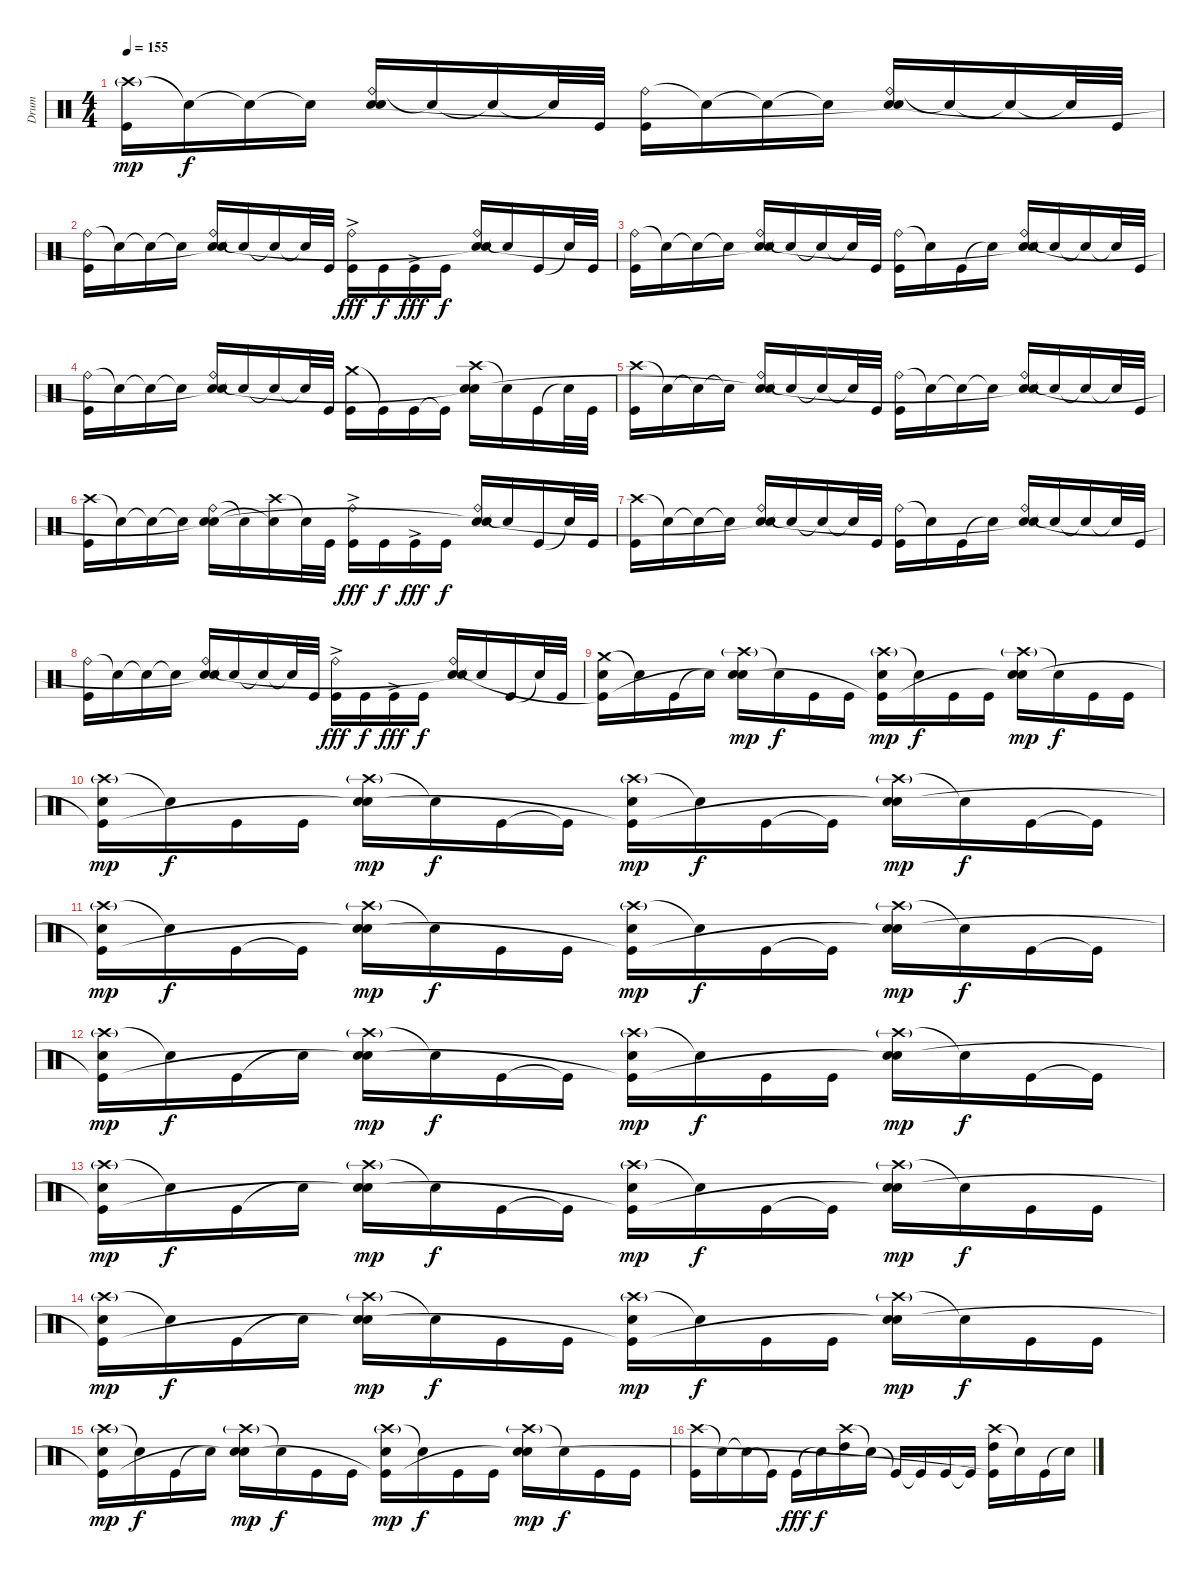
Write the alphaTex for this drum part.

\track ("Drum" "Drum") {instrument percussion}
\staff {score}
\articulation defaults
\ts (4 4)
\tempo 155
\clef neutral
\ks c
("Crash high (hit)"{g} "Kick (hit)").16{dy mp} "Snare (hit)"{t}.16{dy f} "Snare (hit)"{t}.16 "Snare (hit)"{t}.16 ("Ride (bell)" "Electric Snare (hit)" "Snare (hit)"{t}).16 "Snare (hit)"{t}.16 "Snare (hit)"{t}.16 "Snare (hit)"{t}.32 "Kick (hit)".32 ("Ride (bell)" "Kick (hit)").16 "Snare (hit)"{t}.16 "Snare (hit)"{t}.16 "Snare (hit)"{t}.16 ("Ride (bell)" "Electric Snare (hit)" "Snare (hit)"{t}).16 "Snare (hit)"{t}.16 "Snare (hit)"{t}.16 "Snare (hit)"{t}.32 "Kick (hit)".32 |
("Ride (bell)" "Kick (hit)").16 "Snare (hit)"{t}.16 "Snare (hit)"{t}.16 "Snare (hit)"{t}.16 ("Ride (bell)" "Electric Snare (hit)" "Snare (hit)"{t}).16 "Snare (hit)"{t}.16 "Snare (hit)"{t}.16 "Snare (hit)"{t}.32 "Kick (hit)".32 ("Ride (bell)" "Kick (hit)"{ac}).16{dy fff} "Kick (hit)".16{dy f} "Kick (hit)"{ac}.16{dy fff} "Kick (hit)".16{dy f} ("Ride (bell)" "Electric Snare (hit)" "Snare (hit)"{t}).16 "Snare (hit)"{t}.16 "Kick (hit)".16 "Snare (hit)"{t}.32 "Kick (hit)".32 |
("Ride (bell)" "Kick (hit)").16 "Snare (hit)"{t}.16 "Snare (hit)"{t}.16 "Snare (hit)"{t}.16 ("Ride (bell)" "Electric Snare (hit)" "Snare (hit)"{t}).16 "Snare (hit)"{t}.16 "Snare (hit)"{t}.16 "Snare (hit)"{t}.32 "Kick (hit)".32 ("Ride (bell)" "Kick (hit)").16 "Snare (hit)"{t}.16 "Kick (hit)".16 "Snare (hit)"{t}.16 ("Ride (bell)" "Electric Snare (hit)" "Snare (hit)"{t}).16 "Snare (hit)"{t}.16 "Snare (hit)"{t}.16 "Snare (hit)"{t}.32 "Kick (hit)".32 |
("Ride (bell)" "Kick (hit)").16 "Snare (hit)"{t}.16 "Snare (hit)"{t}.16 "Snare (hit)"{t}.16 ("Ride (bell)" "Electric Snare (hit)" "Snare (hit)"{t}).16 "Snare (hit)"{t}.16 "Snare (hit)"{t}.16 "Snare (hit)"{t}.32 "Kick (hit)".32 ("Crash medium (hit)" "Kick (hit)").16 "Kick (hit)"{t}.16 "Kick (hit)".16 "Kick (hit)"{t}.16 ("Crash high (hit)" "Electric Snare (hit)" "Snare (hit)"{t}).16 "Snare (hit)"{t}.16 "Kick (hit)".16 "Snare (hit)"{t}.32 "Kick (hit)".32 |
("Crash high (hit)" "Kick (hit)").16 "Snare (hit)"{t}.16 "Snare (hit)"{t}.16 "Snare (hit)"{t}.16 ("Ride (bell)" "Electric Snare (hit)" "Snare (hit)"{t}).16 "Snare (hit)"{t}.16 "Snare (hit)"{t}.16 "Snare (hit)"{t}.32 "Kick (hit)".32 ("Ride (bell)" "Kick (hit)").16 "Snare (hit)"{t}.16 "Snare (hit)"{t}.16 "Snare (hit)"{t}.16 ("Ride (bell)" "Electric Snare (hit)" "Snare (hit)"{t}).16 "Snare (hit)"{t}.16 "Snare (hit)"{t}.16 "Snare (hit)"{t}.32 "Kick (hit)".32 |
("Crash high (hit)" "Kick (hit)").16 "Snare (hit)"{t}.16 "Snare (hit)"{t}.16 "Snare (hit)"{t}.16 ("Ride (bell)" "Electric Snare (hit)" "Snare (hit)"{t}).16 "Snare (hit)"{t}.16 ("Crash high (hit)" "Snare (hit)"{t}).16 "Snare (hit)"{t}.32 "Kick (hit)".32 ("Ride (bell)" "Kick (hit)"{ac}).16{dy fff} "Kick (hit)".16{dy f} "Kick (hit)"{ac}.16{dy fff} "Kick (hit)".16{dy f} ("Ride (bell)" "Electric Snare (hit)" "Snare (hit)"{t}).16 "Snare (hit)"{t}.16 "Kick (hit)".16 "Snare (hit)"{t}.32 "Kick (hit)".32 |
("Crash high (hit)" "Kick (hit)").16 "Snare (hit)"{t}.16 "Snare (hit)"{t}.16 "Snare (hit)"{t}.16 ("Ride (bell)" "Electric Snare (hit)" "Snare (hit)"{t}).16 "Snare (hit)"{t}.16 "Snare (hit)"{t}.16 "Snare (hit)"{t}.32 "Kick (hit)".32 ("Ride (bell)" "Kick (hit)").16 "Snare (hit)"{t}.16 "Kick (hit)".16 "Snare (hit)"{t}.16 ("Ride (bell)" "Electric Snare (hit)" "Snare (hit)"{t}).16 "Snare (hit)"{t}.16 "Snare (hit)"{t}.16 "Snare (hit)"{t}.32 "Kick (hit)".32 |
("Ride (bell)" "Kick (hit)").16 "Snare (hit)"{t}.16 "Snare (hit)"{t}.16 "Snare (hit)"{t}.16 ("Ride (bell)" "Electric Snare (hit)" "Snare (hit)"{t}).16 "Snare (hit)"{t}.16 "Snare (hit)"{t}.16 "Snare (hit)"{t}.32 "Kick (hit)".32 ("Ride (bell)" "Kick (hit)"{ac}).16{dy fff} "Kick (hit)".16{dy f} "Kick (hit)"{ac}.16{dy fff} "Kick (hit)".16{dy f} ("Ride (bell)" "Electric Snare (hit)" "Snare (hit)"{t}).16 "Snare (hit)"{t}.16 "Kick (hit)".16 "Snare (hit)"{t}.32 "Kick (hit)".32 |
("Crash medium (hit)" "Electric Snare (hit)" "Kick (hit)"{t}).16 "Snare (hit)"{t}.16 "Kick (hit)".16 "Snare (hit)"{t}.16 ("Crash high (hit)"{g} "Electric Snare (hit)" "Snare (hit)"{t}).16{dy mp} "Snare (hit)"{t}.16{dy f} "Kick (hit)".16 "Kick (hit)".16 ("Crash high (hit)"{g} "Electric Snare (hit)" "Kick (hit)"{t}).16{dy mp} "Snare (hit)"{t}.16{dy f} "Kick (hit)".16 "Kick (hit)".16 ("Crash high (hit)"{g} "Electric Snare (hit)" "Snare (hit)"{t}).16{dy mp} "Snare (hit)"{t}.16{dy f} "Kick (hit)".16 "Kick (hit)".16 |
("Crash high (hit)"{g} "Electric Snare (hit)" "Kick (hit)"{t}).16{dy mp} "Snare (hit)"{t}.16{dy f} "Kick (hit)".16 "Kick (hit)".16 ("Crash high (hit)"{g} "Electric Snare (hit)" "Snare (hit)"{t}).16{dy mp} "Snare (hit)"{t}.16{dy f} "Kick (hit)".16 "Kick (hit)"{t}.16 ("Crash high (hit)"{g} "Electric Snare (hit)" "Kick (hit)"{t}).16{dy mp} "Snare (hit)"{t}.16{dy f} "Kick (hit)".16 "Kick (hit)"{t}.16 ("Crash high (hit)"{g} "Electric Snare (hit)" "Snare (hit)"{t}).16{dy mp} "Snare (hit)"{t}.16{dy f} "Kick (hit)".16 "Kick (hit)"{t}.16 |
("Crash high (hit)"{g} "Electric Snare (hit)" "Kick (hit)"{t}).16{dy mp} "Snare (hit)"{t}.16{dy f} "Kick (hit)".16 "Kick (hit)"{t}.16 ("Crash high (hit)"{g} "Electric Snare (hit)" "Snare (hit)"{t}).16{dy mp} "Snare (hit)"{t}.16{dy f} "Kick (hit)".16 "Kick (hit)".16 ("Crash high (hit)"{g} "Electric Snare (hit)" "Kick (hit)"{t}).16{dy mp} "Snare (hit)"{t}.16{dy f} "Kick (hit)".16 "Kick (hit)"{t}.16 ("Crash high (hit)"{g} "Electric Snare (hit)" "Snare (hit)"{t}).16{dy mp} "Snare (hit)"{t}.16{dy f} "Kick (hit)".16 "Kick (hit)"{t}.16 |
("Crash high (hit)"{g} "Electric Snare (hit)" "Kick (hit)"{t}).16{dy mp} "Snare (hit)"{t}.16{dy f} "Kick (hit)".16 "Snare (hit)"{t}.16 ("Crash high (hit)"{g} "Electric Snare (hit)" "Snare (hit)"{t}).16{dy mp} "Snare (hit)"{t}.16{dy f} "Kick (hit)".16 "Kick (hit)"{t}.16 ("Crash high (hit)"{g} "Electric Snare (hit)" "Kick (hit)"{t}).16{dy mp} "Snare (hit)"{t}.16{dy f} "Kick (hit)".16 "Kick (hit)".16 ("Crash high (hit)"{g} "Electric Snare (hit)" "Snare (hit)"{t}).16{dy mp} "Snare (hit)"{t}.16{dy f} "Kick (hit)".16 "Kick (hit)"{t}.16 |
("Crash high (hit)"{g} "Electric Snare (hit)" "Kick (hit)"{t}).16{dy mp} "Snare (hit)"{t}.16{dy f} "Kick (hit)".16 "Snare (hit)"{t}.16 ("Crash high (hit)"{g} "Electric Snare (hit)" "Snare (hit)"{t}).16{dy mp} "Snare (hit)"{t}.16{dy f} "Kick (hit)".16 "Kick (hit)"{t}.16 ("Crash high (hit)"{g} "Electric Snare (hit)" "Kick (hit)"{t}).16{dy mp} "Snare (hit)"{t}.16{dy f} "Kick (hit)".16 "Kick (hit)"{t}.16 ("Crash high (hit)"{g} "Electric Snare (hit)" "Snare (hit)"{t}).16{dy mp} "Snare (hit)"{t}.16{dy f} "Kick (hit)".16 "Kick (hit)".16 |
("Crash high (hit)"{g} "Electric Snare (hit)" "Kick (hit)"{t}).16{dy mp} "Snare (hit)"{t}.16{dy f} "Kick (hit)".16 "Snare (hit)"{t}.16 ("Crash high (hit)"{g} "Electric Snare (hit)" "Snare (hit)"{t}).16{dy mp} "Snare (hit)"{t}.16{dy f} "Kick (hit)".16 "Kick (hit)".16 ("Crash high (hit)"{g} "Electric Snare (hit)" "Kick (hit)"{t}).16{dy mp} "Snare (hit)"{t}.16{dy f} "Kick (hit)".16 "Kick (hit)".16 ("Crash high (hit)"{g} "Electric Snare (hit)" "Snare (hit)"{t}).16{dy mp} "Snare (hit)"{t}.16{dy f} "Kick (hit)".16 "Kick (hit)".16 |
("Crash high (hit)"{g} "Electric Snare (hit)" "Kick (hit)"{t}).16{dy mp} "Snare (hit)"{t}.16{dy f} "Kick (hit)".16 "Snare (hit)"{t}.16 ("Crash high (hit)"{g} "Electric Snare (hit)" "Snare (hit)"{t}).16{dy mp} "Snare (hit)"{t}.16{dy f} "Kick (hit)".16 "Kick (hit)".16 ("Crash high (hit)"{g} "Electric Snare (hit)" "Kick (hit)"{t}).16{dy mp} "Snare (hit)"{t}.16{dy f} "Kick (hit)".16 "Kick (hit)".16 ("Crash high (hit)"{g} "Electric Snare (hit)" "Snare (hit)"{t}).16{dy mp} "Snare (hit)"{t}.16{dy f} "Kick (hit)".16 "Kick (hit)".16 |
("Crash high (hit)" "Kick (hit)").16 "Snare (hit)"{t}.16 "Snare (hit)"{t}.16 "Kick (hit)"{t}.16 "Kick (hit)".16{dy fff} "Snare (hit)"{t}.16{dy f} ("Crash high (hit)" "High Tom (hit)").16 "Snare (hit)"{t}.16 "Kick (hit)"{t}.16 "Kick (hit)"{t}.16 "Kick (hit)".16 "Kick (hit)"{t}.16 ("Crash high (hit)" "High Tom (hit)" "Kick (hit)"{t}).16 "Snare (hit)"{t}.16 "Kick (hit)".16 "Snare (hit)"{t}.16
